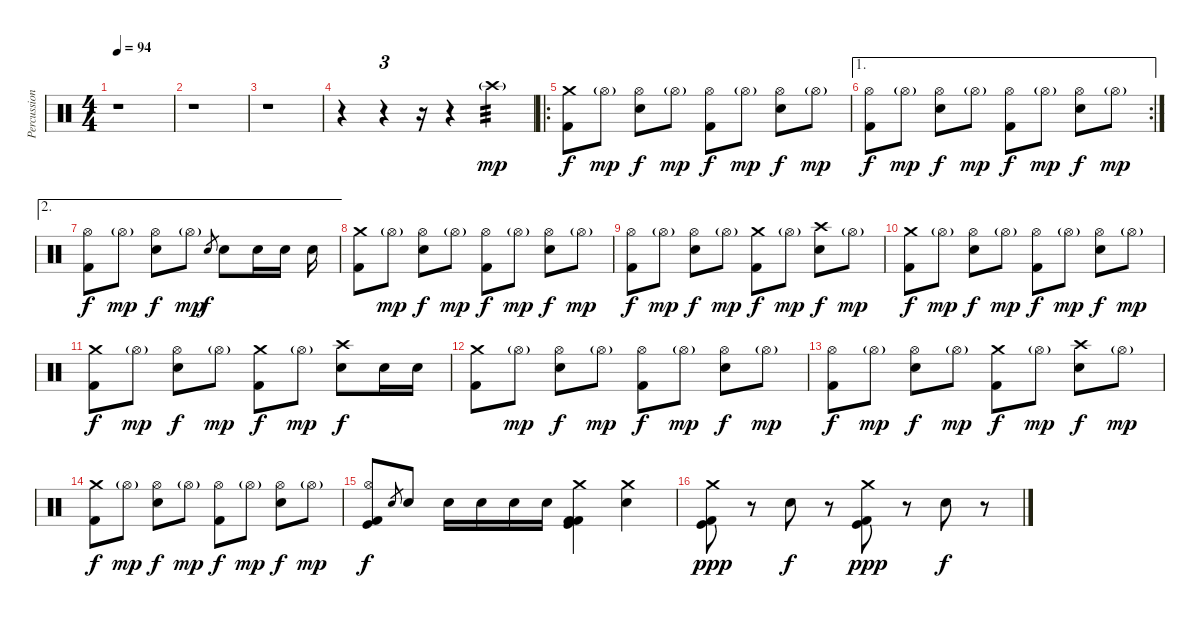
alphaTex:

\track ("Percussion" "Percussion") {solo instrument percussion}
\staff {score}
\articulation defaults
\ts (4 4)
\tempo 94
\clef neutral
\ks c
r.1{dy mp} |
r.1 |
r.1 |
r.4 r.4{tu (3 2)} r.16 r.4 "Crash high (hit)"{g}.4{tp 3} |
\ro
("Crash medium (hit)" "Kick (hit) 2").8{dy f} "Hi-Hat (open)"{g}.8{dy mp} ("Hi-Hat (open)" "Electric Snare (hit)").8{dy f} "Hi-Hat (open)"{g}.8{dy mp} ("Hi-Hat (open)" "Kick (hit) 2").8{dy f} "Hi-Hat (open)"{g}.8{dy mp} ("Hi-Hat (open)" "Electric Snare (hit)").8{dy f} "Hi-Hat (open)"{g}.8{dy mp} |
\ae 1
\rc 2
("Hi-Hat (open)" "Kick (hit) 2").8{dy f} "Hi-Hat (open)"{g}.8{dy mp} ("Hi-Hat (open)" "Electric Snare (hit)").8{dy f} "Hi-Hat (open)"{g}.8{dy mp} ("Hi-Hat (open)" "Kick (hit) 2").8{dy f} "Hi-Hat (open)"{g}.8{dy mp} ("Hi-Hat (open)" "Electric Snare (hit)").8{dy f} "Hi-Hat (open)"{g}.8{dy mp} |
\ae 2
("Hi-Hat (open)" "Kick (hit) 2").8{dy f} "Hi-Hat (open)"{g}.8{dy mp} ("Hi-Hat (open)" "Electric Snare (hit)").8{dy f} "Hi-Hat (open)"{g}.8{dy mp} "Snare (hit) 2".8{gr dy f} "Electric Snare (hit)".8 "Electric Snare (hit)".16 "Electric Snare (hit)".16 "Electric Snare (hit)".16 |
("Crash medium (hit)" "Kick (hit) 2").8 "Hi-Hat (open)"{g}.8{dy mp} ("Hi-Hat (open)" "Electric Snare (hit)").8{dy f} "Hi-Hat (open)"{g}.8{dy mp} ("Hi-Hat (open)" "Kick (hit) 2").8{dy f} "Hi-Hat (open)"{g}.8{dy mp} ("Hi-Hat (open)" "Electric Snare (hit)").8{dy f} "Hi-Hat (open)"{g}.8{dy mp} |
("Hi-Hat (open)" "Kick (hit) 2").8{dy f} "Hi-Hat (open)"{g}.8{dy mp} ("Hi-Hat (open)" "Electric Snare (hit)").8{dy f} "Hi-Hat (open)"{g}.8{dy mp} ("Crash medium (hit)" "Kick (hit) 2").8{dy f} "Hi-Hat (open)"{g}.8{dy mp} ("Crash high (hit)" "Electric Snare (hit)").8{dy f} "Hi-Hat (open)"{g}.8{dy mp} |
("Crash medium (hit)" "Kick (hit) 2").8{dy f} "Hi-Hat (open)"{g}.8{dy mp} ("Hi-Hat (open)" "Electric Snare (hit)").8{dy f} "Hi-Hat (open)"{g}.8{dy mp} ("Hi-Hat (open)" "Kick (hit) 2").8{dy f} "Hi-Hat (open)"{g}.8{dy mp} ("Hi-Hat (open)" "Electric Snare (hit)").8{dy f} "Hi-Hat (open)"{g}.8{dy mp} |
("Crash medium (hit)" "Kick (hit) 2").8{dy f} "Hi-Hat (open)"{g}.8{dy mp} ("Hi-Hat (open)" "Electric Snare (hit)").8{dy f} "Hi-Hat (open)"{g}.8{dy mp} ("Crash medium (hit)" "Kick (hit) 2").8{dy f} "Hi-Hat (open)"{g}.8{dy mp} ("Crash high (hit)" "Electric Snare (hit)").8{dy f} "Electric Snare (hit)".16 "Electric Snare (hit)".16 |
("Crash medium (hit)" "Kick (hit) 2").8 "Hi-Hat (open)"{g}.8{dy mp} ("Hi-Hat (open)" "Electric Snare (hit)").8{dy f} "Hi-Hat (open)"{g}.8{dy mp} ("Hi-Hat (open)" "Kick (hit) 2").8{dy f} "Hi-Hat (open)"{g}.8{dy mp} ("Hi-Hat (open)" "Electric Snare (hit)").8{dy f} "Hi-Hat (open)"{g}.8{dy mp} |
("Hi-Hat (open)" "Kick (hit) 2").8{dy f} "Hi-Hat (open)"{g}.8{dy mp} ("Hi-Hat (open)" "Electric Snare (hit)").8{dy f} "Hi-Hat (open)"{g}.8{dy mp} ("Crash medium (hit)" "Kick (hit) 2").8{dy f} "Hi-Hat (open)"{g}.8{dy mp} ("Crash high (hit)" "Electric Snare (hit)").8{dy f} "Hi-Hat (open)"{g}.8{dy mp} |
("Crash medium (hit)" "Kick (hit) 2").8{dy f} "Hi-Hat (open)"{g}.8{dy mp} ("Hi-Hat (open)" "Electric Snare (hit)").8{dy f} "Hi-Hat (open)"{g}.8{dy mp} ("Hi-Hat (open)" "Kick (hit) 2").8{dy f} "Hi-Hat (open)"{g}.8{dy mp} ("Hi-Hat (open)" "Electric Snare (hit)").8{dy f} "Hi-Hat (open)"{g}.8{dy mp} |
("Kick (hit) 2" "Hi-Hat (open)" "Kick (hit)").8{dy f} "Snare (hit) 2".8{gr} "Electric Snare (hit)".8 "Electric Snare (hit)".16 "Electric Snare (hit)".16 "Electric Snare (hit)".16 "Electric Snare (hit)".16 ("Kick (hit) 2" "Kick (hit) 2" "Crash medium (hit)" "Kick (hit)").4 ("Crash medium (hit)" "Electric Snare (hit)").4 |
("Kick (hit) 2" "Crash medium (hit)" "Kick (hit)").8{dy ppp} r.8 "Electric Snare (hit)".8{dy f} r.8 ("Kick (hit) 2" "Crash medium (hit)" "Kick (hit)").8{dy ppp} r.8 "Electric Snare (hit)".8{dy f} r.8
